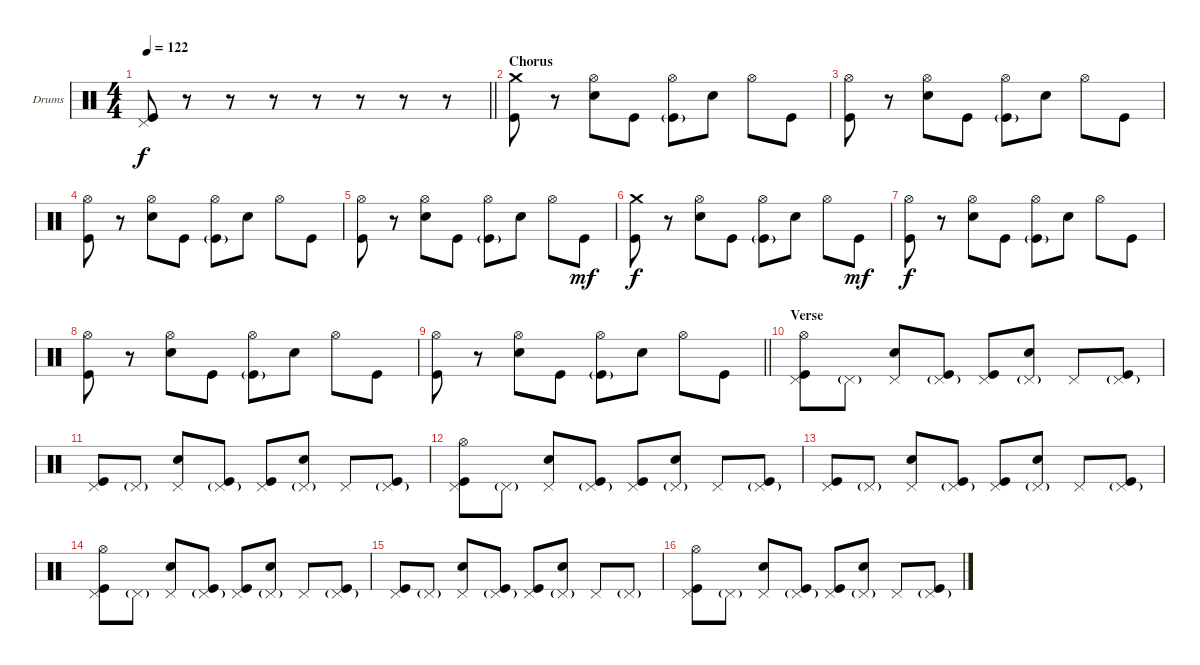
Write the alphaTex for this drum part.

\bracketExtendMode groupsimilarinstruments
\firstSystemTrackNameOrientation horizontal
\otherSystemsTrackNameOrientation horizontal
\track ("Drumkit" "Drums") {instrument percussion}
\staff {score}
\articulation defaults
\ts (4 4)
\tempo 122
\clef neutral
\barLineRight lightlight
\ks c
("Pedal Hi-Hat (hit)" "Kick (hit)").8{dy f} r.8 r.8 r.8 r.8 r.8 r.8 r.8 |
\section ("" "Chorus")
("Crash medium (hit)" "Kick (hit)").8 r.8 ("Hi-Hat (open)" "Snare (hit) 2").8 "Kick (hit)".8 ("Hi-Hat (open)" "Kick (hit)"{g}).8 "Snare (hit) 2".8 "Hi-Hat (open)".8 "Kick (hit)".8 |
("Hi-Hat (open)" "Kick (hit)").8 r.8 ("Hi-Hat (open)" "Snare (hit) 2").8 "Kick (hit)".8 ("Hi-Hat (open)" "Kick (hit)"{g}).8 "Snare (hit) 2".8 "Hi-Hat (open)".8 "Kick (hit)".8 |
("Hi-Hat (open)" "Kick (hit)").8 r.8 ("Hi-Hat (open)" "Snare (hit) 2").8 "Kick (hit)".8 ("Hi-Hat (open)" "Kick (hit)"{g}).8 "Snare (hit) 2".8 "Hi-Hat (open)".8 "Kick (hit)".8 |
("Hi-Hat (open)" "Kick (hit)").8 r.8 ("Hi-Hat (open)" "Snare (hit) 2").8 "Kick (hit)".8 ("Hi-Hat (open)" "Kick (hit)"{g}).8 "Snare (hit) 2".8 "Hi-Hat (open)".8 "Kick (hit)".8{dy mf} |
("Crash medium (hit)" "Kick (hit)").8{dy f} r.8 ("Hi-Hat (open)" "Snare (hit) 2").8 "Kick (hit)".8 ("Hi-Hat (open)" "Kick (hit)"{g}).8 "Snare (hit) 2".8 "Hi-Hat (open)".8 "Kick (hit)".8{dy mf} |
("Hi-Hat (open)" "Kick (hit)").8{dy f} r.8 ("Hi-Hat (open)" "Snare (hit) 2").8 "Kick (hit)".8 ("Hi-Hat (open)" "Kick (hit)"{g}).8 "Snare (hit) 2".8 "Hi-Hat (open)".8 "Kick (hit)".8 |
("Hi-Hat (open)" "Kick (hit)").8 r.8 ("Hi-Hat (open)" "Snare (hit) 2").8 "Kick (hit)".8 ("Hi-Hat (open)" "Kick (hit)"{g}).8 "Snare (hit) 2".8 "Hi-Hat (open)".8 "Kick (hit)".8 |
\barLineRight lightlight
("Hi-Hat (open)" "Kick (hit)").8 r.8 ("Hi-Hat (open)" "Snare (hit) 2").8 "Kick (hit)".8 ("Hi-Hat (open)" "Kick (hit)"{g}).8 "Snare (hit) 2".8 "Hi-Hat (open)".8 "Kick (hit)".8 |
\section ("" "Verse")
("Pedal Hi-Hat (hit)" "Hi-Hat (open)" "Kick (hit)").8 "Pedal Hi-Hat (hit)"{g}.8 ("Pedal Hi-Hat (hit)" "Snare (hit) 2").8 ("Pedal Hi-Hat (hit)"{g} "Kick (hit)").8 ("Pedal Hi-Hat (hit)" "Kick (hit)").8 ("Snare (hit) 2" "Pedal Hi-Hat (hit)"{g}).8 "Pedal Hi-Hat (hit)".8 ("Pedal Hi-Hat (hit)"{g} "Kick (hit)").8 |
("Pedal Hi-Hat (hit)" "Kick (hit)").8 "Pedal Hi-Hat (hit)"{g}.8 ("Pedal Hi-Hat (hit)" "Snare (hit) 2").8 ("Pedal Hi-Hat (hit)"{g} "Kick (hit)").8 ("Pedal Hi-Hat (hit)" "Kick (hit)").8 ("Snare (hit) 2" "Pedal Hi-Hat (hit)"{g}).8 "Pedal Hi-Hat (hit)".8 ("Pedal Hi-Hat (hit)"{g} "Kick (hit)").8 |
("Pedal Hi-Hat (hit)" "Hi-Hat (open)" "Kick (hit)").8 "Pedal Hi-Hat (hit)"{g}.8 ("Pedal Hi-Hat (hit)" "Snare (hit) 2").8 ("Pedal Hi-Hat (hit)"{g} "Kick (hit)").8 ("Pedal Hi-Hat (hit)" "Kick (hit)").8 ("Snare (hit) 2" "Pedal Hi-Hat (hit)"{g}).8 "Pedal Hi-Hat (hit)".8 ("Pedal Hi-Hat (hit)"{g} "Kick (hit)").8 |
("Pedal Hi-Hat (hit)" "Kick (hit)").8 "Pedal Hi-Hat (hit)"{g}.8 ("Pedal Hi-Hat (hit)" "Snare (hit) 2").8 ("Pedal Hi-Hat (hit)"{g} "Kick (hit)").8 ("Pedal Hi-Hat (hit)" "Kick (hit)").8 ("Snare (hit) 2" "Pedal Hi-Hat (hit)"{g}).8 "Pedal Hi-Hat (hit)".8 ("Pedal Hi-Hat (hit)"{g} "Kick (hit)").8 |
("Pedal Hi-Hat (hit)" "Hi-Hat (open)" "Kick (hit)").8 "Pedal Hi-Hat (hit)"{g}.8 ("Pedal Hi-Hat (hit)" "Snare (hit) 2").8 ("Pedal Hi-Hat (hit)"{g} "Kick (hit)").8 ("Pedal Hi-Hat (hit)" "Kick (hit)").8 ("Snare (hit) 2" "Pedal Hi-Hat (hit)"{g}).8 "Pedal Hi-Hat (hit)".8 ("Pedal Hi-Hat (hit)"{g} "Kick (hit)").8 |
("Pedal Hi-Hat (hit)" "Kick (hit)").8 "Pedal Hi-Hat (hit)"{g}.8 ("Pedal Hi-Hat (hit)" "Snare (hit) 2").8 ("Pedal Hi-Hat (hit)"{g} "Kick (hit)").8 ("Pedal Hi-Hat (hit)" "Kick (hit)").8 ("Pedal Hi-Hat (hit)"{g} "Snare (hit) 2").8 "Pedal Hi-Hat (hit)".8 "Pedal Hi-Hat (hit)"{g}.8 |
("Pedal Hi-Hat (hit)" "Hi-Hat (open)" "Kick (hit)").8 "Pedal Hi-Hat (hit)"{g}.8 ("Pedal Hi-Hat (hit)" "Snare (hit) 2").8 ("Pedal Hi-Hat (hit)"{g} "Kick (hit)").8 ("Pedal Hi-Hat (hit)" "Kick (hit)").8 ("Snare (hit) 2" "Pedal Hi-Hat (hit)"{g}).8 "Pedal Hi-Hat (hit)".8 ("Pedal Hi-Hat (hit)"{g} "Kick (hit)").8
